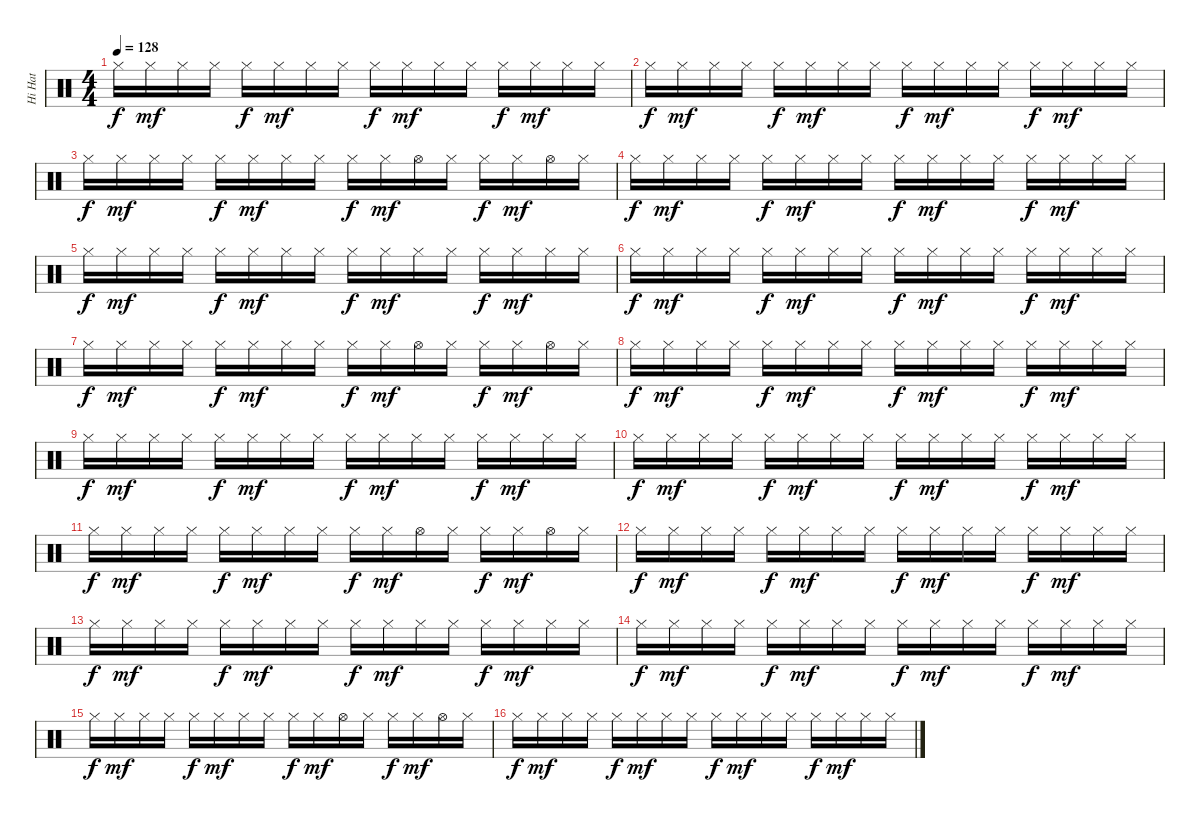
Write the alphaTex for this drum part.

\track ("Hi Hat" "Hi Hat") {instrument percussion}
\staff {score}
\articulation defaults
\ts (4 4)
\tempo 128
\clef neutral
\ks c "Hi-Hat (closed)".16{dy f} "Hi-Hat (closed)".16{dy mf} "Hi-Hat (closed)".16 "Hi-Hat (closed)".16 "Hi-Hat (closed)".16{dy f} "Hi-Hat (closed)".16{dy mf} "Hi-Hat (closed)".16 "Hi-Hat (closed)".16 "Hi-Hat (closed)".16{dy f} "Hi-Hat (closed)".16{dy mf} "Hi-Hat (closed)".16 "Hi-Hat (closed)".16 "Hi-Hat (closed)".16{dy f} "Hi-Hat (closed)".16{dy mf} "Hi-Hat (closed)".16 "Hi-Hat (closed)".16
|
"Hi-Hat (closed)".16{dy f} "Hi-Hat (closed)".16{dy mf} "Hi-Hat (closed)".16 "Hi-Hat (closed)".16 "Hi-Hat (closed)".16{dy f} "Hi-Hat (closed)".16{dy mf} "Hi-Hat (closed)".16 "Hi-Hat (closed)".16 "Hi-Hat (closed)".16{dy f} "Hi-Hat (closed)".16{dy mf} "Hi-Hat (closed)".16 "Hi-Hat (closed)".16 "Hi-Hat (closed)".16{dy f} "Hi-Hat (closed)".16{dy mf} "Hi-Hat (closed)".16 "Hi-Hat (closed)".16 |
"Hi-Hat (closed)".16{dy f} "Hi-Hat (closed)".16{dy mf} "Hi-Hat (closed)".16 "Hi-Hat (closed)".16 "Hi-Hat (closed)".16{dy f} "Hi-Hat (closed)".16{dy mf} "Hi-Hat (closed)".16 "Hi-Hat (closed)".16 "Hi-Hat (closed)".16{dy f} "Hi-Hat (closed)".16{dy mf} "Hi-Hat (open)".16 "Hi-Hat (closed)".16 "Hi-Hat (closed)".16{dy f} "Hi-Hat (closed)".16{dy mf} "Hi-Hat (open)".16 "Hi-Hat (closed)".16 |
"Hi-Hat (closed)".16{dy f} "Hi-Hat (closed)".16{dy mf} "Hi-Hat (closed)".16 "Hi-Hat (closed)".16 "Hi-Hat (closed)".16{dy f} "Hi-Hat (closed)".16{dy mf} "Hi-Hat (closed)".16 "Hi-Hat (closed)".16 "Hi-Hat (closed)".16{dy f} "Hi-Hat (closed)".16{dy mf} "Hi-Hat (closed)".16 "Hi-Hat (closed)".16 "Hi-Hat (closed)".16{dy f} "Hi-Hat (closed)".16{dy mf} "Hi-Hat (closed)".16 "Hi-Hat (closed)".16 |
"Hi-Hat (closed)".16{dy f} "Hi-Hat (closed)".16{dy mf} "Hi-Hat (closed)".16 "Hi-Hat (closed)".16 "Hi-Hat (closed)".16{dy f} "Hi-Hat (closed)".16{dy mf} "Hi-Hat (closed)".16 "Hi-Hat (closed)".16 "Hi-Hat (closed)".16{dy f} "Hi-Hat (closed)".16{dy mf} "Hi-Hat (closed)".16 "Hi-Hat (closed)".16 "Hi-Hat (closed)".16{dy f} "Hi-Hat (closed)".16{dy mf} "Hi-Hat (closed)".16 "Hi-Hat (closed)".16 |
"Hi-Hat (closed)".16{dy f} "Hi-Hat (closed)".16{dy mf} "Hi-Hat (closed)".16 "Hi-Hat (closed)".16 "Hi-Hat (closed)".16{dy f} "Hi-Hat (closed)".16{dy mf} "Hi-Hat (closed)".16 "Hi-Hat (closed)".16 "Hi-Hat (closed)".16{dy f} "Hi-Hat (closed)".16{dy mf} "Hi-Hat (closed)".16 "Hi-Hat (closed)".16 "Hi-Hat (closed)".16{dy f} "Hi-Hat (closed)".16{dy mf} "Hi-Hat (closed)".16 "Hi-Hat (closed)".16 |
"Hi-Hat (closed)".16{dy f} "Hi-Hat (closed)".16{dy mf} "Hi-Hat (closed)".16 "Hi-Hat (closed)".16 "Hi-Hat (closed)".16{dy f} "Hi-Hat (closed)".16{dy mf} "Hi-Hat (closed)".16 "Hi-Hat (closed)".16 "Hi-Hat (closed)".16{dy f} "Hi-Hat (closed)".16{dy mf} "Hi-Hat (open)".16 "Hi-Hat (closed)".16 "Hi-Hat (closed)".16{dy f} "Hi-Hat (closed)".16{dy mf} "Hi-Hat (open)".16 "Hi-Hat (closed)".16 |
"Hi-Hat (closed)".16{dy f} "Hi-Hat (closed)".16{dy mf} "Hi-Hat (closed)".16 "Hi-Hat (closed)".16 "Hi-Hat (closed)".16{dy f} "Hi-Hat (closed)".16{dy mf} "Hi-Hat (closed)".16 "Hi-Hat (closed)".16 "Hi-Hat (closed)".16{dy f} "Hi-Hat (closed)".16{dy mf} "Hi-Hat (closed)".16 "Hi-Hat (closed)".16 "Hi-Hat (closed)".16{dy f} "Hi-Hat (closed)".16{dy mf} "Hi-Hat (closed)".16 "Hi-Hat (closed)".16 |
"Hi-Hat (closed)".16{dy f} "Hi-Hat (closed)".16{dy mf} "Hi-Hat (closed)".16 "Hi-Hat (closed)".16 "Hi-Hat (closed)".16{dy f} "Hi-Hat (closed)".16{dy mf} "Hi-Hat (closed)".16 "Hi-Hat (closed)".16 "Hi-Hat (closed)".16{dy f} "Hi-Hat (closed)".16{dy mf} "Hi-Hat (closed)".16 "Hi-Hat (closed)".16 "Hi-Hat (closed)".16{dy f} "Hi-Hat (closed)".16{dy mf} "Hi-Hat (closed)".16 "Hi-Hat (closed)".16 |
"Hi-Hat (closed)".16{dy f} "Hi-Hat (closed)".16{dy mf} "Hi-Hat (closed)".16 "Hi-Hat (closed)".16 "Hi-Hat (closed)".16{dy f} "Hi-Hat (closed)".16{dy mf} "Hi-Hat (closed)".16 "Hi-Hat (closed)".16 "Hi-Hat (closed)".16{dy f} "Hi-Hat (closed)".16{dy mf} "Hi-Hat (closed)".16 "Hi-Hat (closed)".16 "Hi-Hat (closed)".16{dy f} "Hi-Hat (closed)".16{dy mf} "Hi-Hat (closed)".16 "Hi-Hat (closed)".16 |
"Hi-Hat (closed)".16{dy f} "Hi-Hat (closed)".16{dy mf} "Hi-Hat (closed)".16 "Hi-Hat (closed)".16 "Hi-Hat (closed)".16{dy f} "Hi-Hat (closed)".16{dy mf} "Hi-Hat (closed)".16 "Hi-Hat (closed)".16 "Hi-Hat (closed)".16{dy f} "Hi-Hat (closed)".16{dy mf} "Hi-Hat (open)".16 "Hi-Hat (closed)".16 "Hi-Hat (closed)".16{dy f} "Hi-Hat (closed)".16{dy mf} "Hi-Hat (open)".16 "Hi-Hat (closed)".16 |
"Hi-Hat (closed)".16{dy f} "Hi-Hat (closed)".16{dy mf} "Hi-Hat (closed)".16 "Hi-Hat (closed)".16 "Hi-Hat (closed)".16{dy f} "Hi-Hat (closed)".16{dy mf} "Hi-Hat (closed)".16 "Hi-Hat (closed)".16 "Hi-Hat (closed)".16{dy f} "Hi-Hat (closed)".16{dy mf} "Hi-Hat (closed)".16 "Hi-Hat (closed)".16 "Hi-Hat (closed)".16{dy f} "Hi-Hat (closed)".16{dy mf} "Hi-Hat (closed)".16 "Hi-Hat (closed)".16 |
"Hi-Hat (closed)".16{dy f} "Hi-Hat (closed)".16{dy mf} "Hi-Hat (closed)".16 "Hi-Hat (closed)".16 "Hi-Hat (closed)".16{dy f} "Hi-Hat (closed)".16{dy mf} "Hi-Hat (closed)".16 "Hi-Hat (closed)".16 "Hi-Hat (closed)".16{dy f} "Hi-Hat (closed)".16{dy mf} "Hi-Hat (closed)".16 "Hi-Hat (closed)".16 "Hi-Hat (closed)".16{dy f} "Hi-Hat (closed)".16{dy mf} "Hi-Hat (closed)".16 "Hi-Hat (closed)".16 |
"Hi-Hat (closed)".16{dy f} "Hi-Hat (closed)".16{dy mf} "Hi-Hat (closed)".16 "Hi-Hat (closed)".16 "Hi-Hat (closed)".16{dy f} "Hi-Hat (closed)".16{dy mf} "Hi-Hat (closed)".16 "Hi-Hat (closed)".16 "Hi-Hat (closed)".16{dy f} "Hi-Hat (closed)".16{dy mf} "Hi-Hat (closed)".16 "Hi-Hat (closed)".16 "Hi-Hat (closed)".16{dy f} "Hi-Hat (closed)".16{dy mf} "Hi-Hat (closed)".16 "Hi-Hat (closed)".16 |
"Hi-Hat (closed)".16{dy f} "Hi-Hat (closed)".16{dy mf} "Hi-Hat (closed)".16 "Hi-Hat (closed)".16 "Hi-Hat (closed)".16{dy f} "Hi-Hat (closed)".16{dy mf} "Hi-Hat (closed)".16 "Hi-Hat (closed)".16 "Hi-Hat (closed)".16{dy f} "Hi-Hat (closed)".16{dy mf} "Hi-Hat (open)".16 "Hi-Hat (closed)".16 "Hi-Hat (closed)".16{dy f} "Hi-Hat (closed)".16{dy mf} "Hi-Hat (open)".16 "Hi-Hat (closed)".16 |
"Hi-Hat (closed)".16{dy f} "Hi-Hat (closed)".16{dy mf} "Hi-Hat (closed)".16 "Hi-Hat (closed)".16 "Hi-Hat (closed)".16{dy f} "Hi-Hat (closed)".16{dy mf} "Hi-Hat (closed)".16 "Hi-Hat (closed)".16 "Hi-Hat (closed)".16{dy f} "Hi-Hat (closed)".16{dy mf} "Hi-Hat (closed)".16 "Hi-Hat (closed)".16 "Hi-Hat (closed)".16{dy f} "Hi-Hat (closed)".16{dy mf} "Hi-Hat (closed)".16 "Hi-Hat (closed)".16
